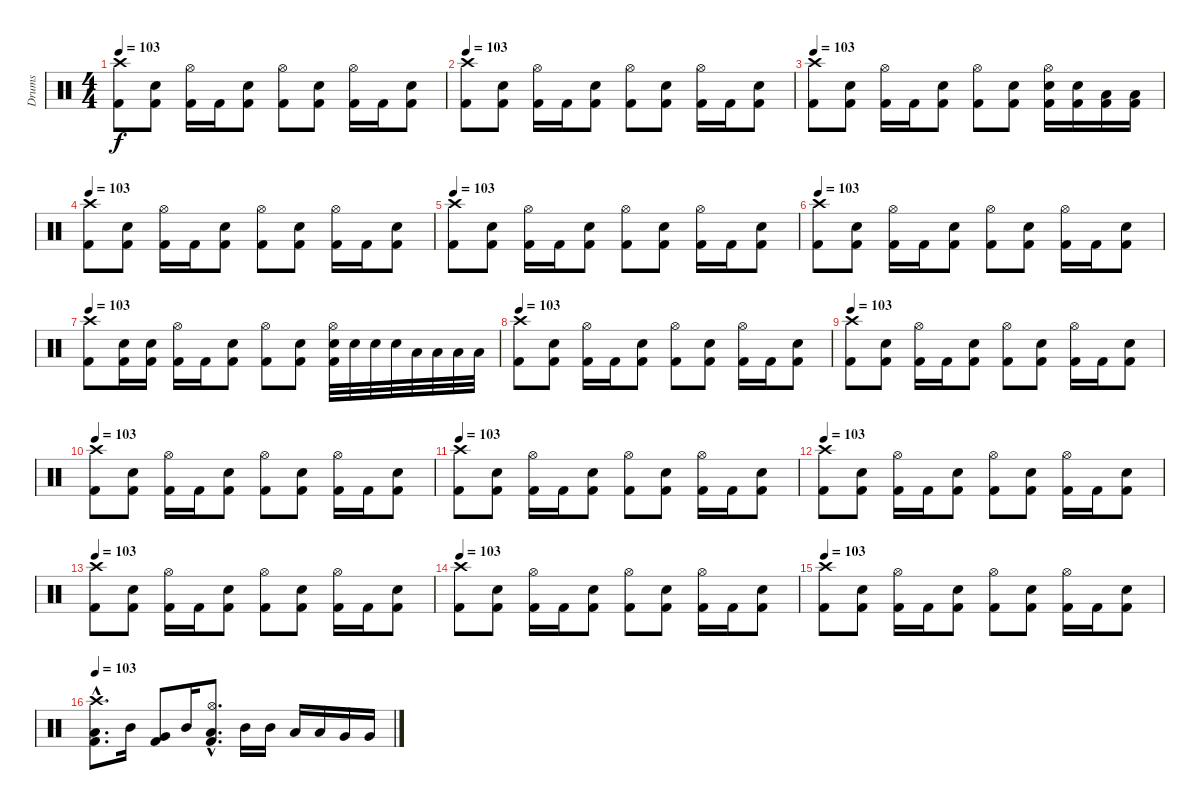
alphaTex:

\track ("Drums" "Drums") {instrument percussion}
\staff {score}
\articulation defaults
\ts (4 4)
\tempo 103
\clef neutral
\ks c
("Crash high (hit)" "Kick (hit) 2").8{dy f} ("Snare (hit) 2" "Kick (hit) 2").8 ("Hi-Hat (open)" "Kick (hit) 2").16 "Kick (hit) 2".16 ("Snare (hit) 2" "Kick (hit) 2").8 ("Hi-Hat (open)" "Kick (hit) 2").8 ("Snare (hit) 2" "Kick (hit) 2").8 ("Hi-Hat (open)" "Kick (hit) 2").16 "Kick (hit) 2".16 ("Snare (hit) 2" "Kick (hit) 2").8 |
\tempo 103
("Crash high (hit)" "Kick (hit) 2").8 ("Snare (hit) 2" "Kick (hit) 2").8 ("Hi-Hat (open)" "Kick (hit) 2").16 "Kick (hit) 2".16 ("Snare (hit) 2" "Kick (hit) 2").8 ("Hi-Hat (open)" "Kick (hit) 2").8 ("Snare (hit) 2" "Kick (hit) 2").8 ("Hi-Hat (open)" "Kick (hit) 2").16 "Kick (hit) 2".16 ("Snare (hit) 2" "Kick (hit) 2").8 |
\tempo 103
("Crash high (hit)" "Kick (hit) 2").8 ("Snare (hit) 2" "Kick (hit) 2").8 ("Hi-Hat (open)" "Kick (hit) 2").16 "Kick (hit) 2".16 ("Snare (hit) 2" "Kick (hit) 2").8 ("Hi-Hat (open)" "Kick (hit) 2").8 ("Snare (hit) 2" "Kick (hit) 2").8 ("Hi-Hat (open)" "Snare (hit) 2" "Kick (hit) 2").16 ("Snare (hit) 2" "Kick (hit) 2").16 ("Low Tom (hit)" "Kick (hit) 2").16 ("Low Tom (hit)" "Kick (hit) 2").16 |
\tempo 103
("Crash high (hit)" "Kick (hit) 2").8 ("Snare (hit) 2" "Kick (hit) 2").8 ("Hi-Hat (open)" "Kick (hit) 2").16 "Kick (hit) 2".16 ("Snare (hit) 2" "Kick (hit) 2").8 ("Hi-Hat (open)" "Kick (hit) 2").8 ("Snare (hit) 2" "Kick (hit) 2").8 ("Hi-Hat (open)" "Kick (hit) 2").16 "Kick (hit) 2".16 ("Snare (hit) 2" "Kick (hit) 2").8 |
\tempo 103
("Crash high (hit)" "Kick (hit) 2").8 ("Snare (hit) 2" "Kick (hit) 2").8 ("Hi-Hat (open)" "Kick (hit) 2").16 "Kick (hit) 2".16 ("Snare (hit) 2" "Kick (hit) 2").8 ("Hi-Hat (open)" "Kick (hit) 2").8 ("Snare (hit) 2" "Kick (hit) 2").8 ("Hi-Hat (open)" "Kick (hit) 2").16 "Kick (hit) 2".16 ("Snare (hit) 2" "Kick (hit) 2").8 |
\tempo 103
("Crash high (hit)" "Kick (hit) 2").8 ("Snare (hit) 2" "Kick (hit) 2").8 ("Hi-Hat (open)" "Kick (hit) 2").16 "Kick (hit) 2".16 ("Snare (hit) 2" "Kick (hit) 2").8 ("Hi-Hat (open)" "Kick (hit) 2").8 ("Snare (hit) 2" "Kick (hit) 2").8 ("Hi-Hat (open)" "Kick (hit) 2").16 "Kick (hit) 2".16 ("Snare (hit) 2" "Kick (hit) 2").8 |
\tempo 103
("Crash high (hit)" "Kick (hit) 2").8 ("Snare (hit) 2" "Kick (hit) 2").16 ("Snare (hit) 2" "Kick (hit) 2").16 ("Hi-Hat (open)" "Kick (hit) 2").16 "Kick (hit) 2".16 ("Snare (hit) 2" "Kick (hit) 2").8 ("Hi-Hat (open)" "Kick (hit) 2").8 ("Snare (hit) 2" "Kick (hit) 2").8 ("Hi-Hat (open)" "Snare (hit) 2" "Kick (hit) 2").32 "Snare (hit) 2".32 "Snare (hit) 2".32 "Snare (hit) 2".32 "Low Tom (hit)".32 "Low Tom (hit)".32 "Low Tom (hit)".32 "Low Tom (hit)".32 |
\tempo 103
("Crash high (hit)" "Kick (hit) 2").8 ("Snare (hit) 2" "Kick (hit) 2").8 ("Hi-Hat (open)" "Kick (hit) 2").16 "Kick (hit) 2".16 ("Snare (hit) 2" "Kick (hit) 2").8 ("Hi-Hat (open)" "Kick (hit) 2").8 ("Snare (hit) 2" "Kick (hit) 2").8 ("Hi-Hat (open)" "Kick (hit) 2").16 "Kick (hit) 2".16 ("Snare (hit) 2" "Kick (hit) 2").8 |
\tempo 103
("Crash high (hit)" "Kick (hit) 2").8 ("Snare (hit) 2" "Kick (hit) 2").8 ("Hi-Hat (open)" "Kick (hit) 2").16 "Kick (hit) 2".16 ("Snare (hit) 2" "Kick (hit) 2").8 ("Hi-Hat (open)" "Kick (hit) 2").8 ("Snare (hit) 2" "Kick (hit) 2").8 ("Hi-Hat (open)" "Kick (hit) 2").16 "Kick (hit) 2".16 ("Snare (hit) 2" "Kick (hit) 2").8 |
\tempo 103
("Crash high (hit)" "Kick (hit) 2").8 ("Snare (hit) 2" "Kick (hit) 2").8 ("Hi-Hat (open)" "Kick (hit) 2").16 "Kick (hit) 2".16 ("Snare (hit) 2" "Kick (hit) 2").8 ("Hi-Hat (open)" "Kick (hit) 2").8 ("Snare (hit) 2" "Kick (hit) 2").8 ("Hi-Hat (open)" "Kick (hit) 2").16 "Kick (hit) 2".16 ("Snare (hit) 2" "Kick (hit) 2").8 |
\tempo 103
("Crash high (hit)" "Kick (hit) 2").8 ("Snare (hit) 2" "Kick (hit) 2").8 ("Hi-Hat (open)" "Kick (hit) 2").16 "Kick (hit) 2".16 ("Snare (hit) 2" "Kick (hit) 2").8 ("Hi-Hat (open)" "Kick (hit) 2").8 ("Snare (hit) 2" "Kick (hit) 2").8 ("Hi-Hat (open)" "Kick (hit) 2").16 "Kick (hit) 2".16 ("Snare (hit) 2" "Kick (hit) 2").8 |
\tempo 103
("Crash high (hit)" "Kick (hit) 2").8 ("Snare (hit) 2" "Kick (hit) 2").8 ("Hi-Hat (open)" "Kick (hit) 2").16 "Kick (hit) 2".16 ("Snare (hit) 2" "Kick (hit) 2").8 ("Hi-Hat (open)" "Kick (hit) 2").8 ("Snare (hit) 2" "Kick (hit) 2").8 ("Hi-Hat (open)" "Kick (hit) 2").16 "Kick (hit) 2".16 ("Snare (hit) 2" "Kick (hit) 2").8 |
\tempo 103
("Crash high (hit)" "Kick (hit) 2").8 ("Snare (hit) 2" "Kick (hit) 2").8 ("Hi-Hat (open)" "Kick (hit) 2").16 "Kick (hit) 2".16 ("Snare (hit) 2" "Kick (hit) 2").8 ("Hi-Hat (open)" "Kick (hit) 2").8 ("Snare (hit) 2" "Kick (hit) 2").8 ("Hi-Hat (open)" "Kick (hit) 2").16 "Kick (hit) 2".16 ("Snare (hit) 2" "Kick (hit) 2").8 |
\tempo 103
("Crash high (hit)" "Kick (hit) 2").8 ("Snare (hit) 2" "Kick (hit) 2").8 ("Hi-Hat (open)" "Kick (hit) 2").16 "Kick (hit) 2".16 ("Snare (hit) 2" "Kick (hit) 2").8 ("Hi-Hat (open)" "Kick (hit) 2").8 ("Snare (hit) 2" "Kick (hit) 2").8 ("Hi-Hat (open)" "Kick (hit) 2").16 "Kick (hit) 2".16 ("Snare (hit) 2" "Kick (hit) 2").8 |
\tempo 103
("Crash high (hit)" "Kick (hit) 2").8 ("Snare (hit) 2" "Kick (hit) 2").8 ("Hi-Hat (open)" "Kick (hit) 2").16 "Kick (hit) 2".16 ("Snare (hit) 2" "Kick (hit) 2").8 ("Hi-Hat (open)" "Kick (hit) 2").8 ("Snare (hit) 2" "Kick (hit) 2").8 ("Hi-Hat (open)" "Kick (hit) 2").16 "Kick (hit) 2".16 ("Snare (hit) 2" "Kick (hit) 2").8 |
\tempo 103
("Crash high (hit)"{hac} "Low Floor Tom (hit)"{hac} "Kick (hit) 2"{hac}).8{d} "Mid Tom (hit)".16 ("Very Low Tom (hit)" "Kick (hit) 2").8 "Mid Tom (hit)".16 ("Hi-Hat (open)"{hac} "Low Floor Tom (hit)"{hac} "Kick (hit) 2"{hac}).8{d} "Mid Tom (hit)".16 "Mid Tom (hit)".16 "Low Tom (hit)".16 "Low Tom (hit)".16 "Very Low Tom (hit)".16 "Very Low Tom (hit)".16
